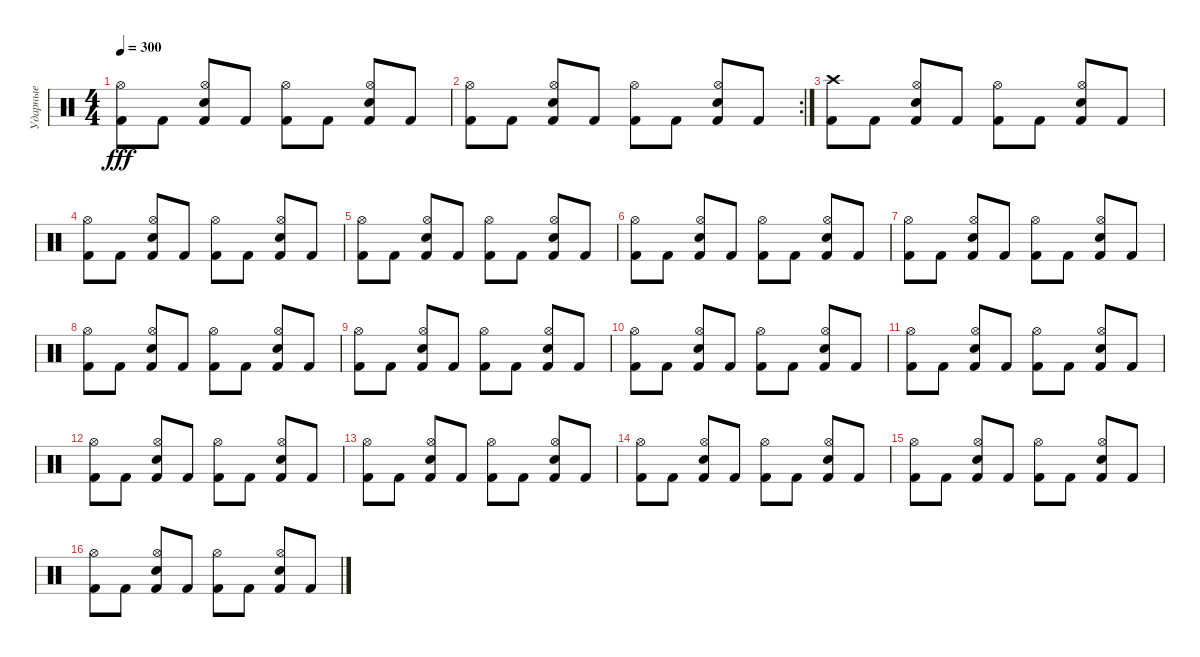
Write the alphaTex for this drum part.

\track ("Ударные" "Ударные") {instrument percussion}
\staff {score}
\articulation defaults
\ts (4 4)
\tempo 300
\clef neutral
\ks c
("Kick (hit) 2" "Hi-Hat (open)").8{dy fff} "Kick (hit) 2".8 ("Kick (hit) 2" "Snare (hit) 2" "Hi-Hat (open)").8 "Kick (hit) 2".8 ("Kick (hit) 2" "Hi-Hat (open)").8 "Kick (hit) 2".8 ("Kick (hit) 2" "Snare (hit) 2" "Hi-Hat (open)").8 "Kick (hit) 2".8 |
\rc 2
("Kick (hit) 2" "Hi-Hat (open)").8 "Kick (hit) 2".8 ("Kick (hit) 2" "Snare (hit) 2" "Hi-Hat (open)").8 "Kick (hit) 2".8 ("Kick (hit) 2" "Hi-Hat (open)").8 "Kick (hit) 2".8 ("Kick (hit) 2" "Snare (hit) 2" "Hi-Hat (open)").8 "Kick (hit) 2".8 |
("Kick (hit) 2" "Crash high (hit)").8 "Kick (hit) 2".8 ("Kick (hit) 2" "Snare (hit) 2" "Hi-Hat (open)").8 "Kick (hit) 2".8 ("Kick (hit) 2" "Hi-Hat (open)").8 "Kick (hit) 2".8 ("Kick (hit) 2" "Snare (hit) 2" "Hi-Hat (open)").8 "Kick (hit) 2".8 |
("Kick (hit) 2" "Hi-Hat (open)").8 "Kick (hit) 2".8 ("Kick (hit) 2" "Snare (hit) 2" "Hi-Hat (open)").8 "Kick (hit) 2".8 ("Kick (hit) 2" "Hi-Hat (open)").8 "Kick (hit) 2".8 ("Kick (hit) 2" "Snare (hit) 2" "Hi-Hat (open)").8 "Kick (hit) 2".8 |
("Kick (hit) 2" "Hi-Hat (open)").8 "Kick (hit) 2".8 ("Kick (hit) 2" "Snare (hit) 2" "Hi-Hat (open)").8 "Kick (hit) 2".8 ("Kick (hit) 2" "Hi-Hat (open)").8 "Kick (hit) 2".8 ("Kick (hit) 2" "Snare (hit) 2" "Hi-Hat (open)").8 "Kick (hit) 2".8 |
("Kick (hit) 2" "Hi-Hat (open)").8 "Kick (hit) 2".8 ("Kick (hit) 2" "Snare (hit) 2" "Hi-Hat (open)").8 "Kick (hit) 2".8 ("Kick (hit) 2" "Hi-Hat (open)").8 "Kick (hit) 2".8 ("Kick (hit) 2" "Snare (hit) 2" "Hi-Hat (open)").8 "Kick (hit) 2".8 |
("Kick (hit) 2" "Hi-Hat (open)").8 "Kick (hit) 2".8 ("Kick (hit) 2" "Snare (hit) 2" "Hi-Hat (open)").8 "Kick (hit) 2".8 ("Kick (hit) 2" "Hi-Hat (open)").8 "Kick (hit) 2".8 ("Kick (hit) 2" "Snare (hit) 2" "Hi-Hat (open)").8 "Kick (hit) 2".8 |
("Kick (hit) 2" "Hi-Hat (open)").8 "Kick (hit) 2".8 ("Kick (hit) 2" "Snare (hit) 2" "Hi-Hat (open)").8 "Kick (hit) 2".8 ("Kick (hit) 2" "Hi-Hat (open)").8 "Kick (hit) 2".8 ("Kick (hit) 2" "Snare (hit) 2" "Hi-Hat (open)").8 "Kick (hit) 2".8 |
("Kick (hit) 2" "Hi-Hat (open)").8 "Kick (hit) 2".8 ("Kick (hit) 2" "Snare (hit) 2" "Hi-Hat (open)").8 "Kick (hit) 2".8 ("Kick (hit) 2" "Hi-Hat (open)").8 "Kick (hit) 2".8 ("Kick (hit) 2" "Snare (hit) 2" "Hi-Hat (open)").8 "Kick (hit) 2".8 |
("Kick (hit) 2" "Hi-Hat (open)").8 "Kick (hit) 2".8 ("Kick (hit) 2" "Snare (hit) 2" "Hi-Hat (open)").8 "Kick (hit) 2".8 ("Kick (hit) 2" "Hi-Hat (open)").8 "Kick (hit) 2".8 ("Kick (hit) 2" "Snare (hit) 2" "Hi-Hat (open)").8 "Kick (hit) 2".8 |
("Kick (hit) 2" "Hi-Hat (open)").8 "Kick (hit) 2".8 ("Kick (hit) 2" "Snare (hit) 2" "Hi-Hat (open)").8 "Kick (hit) 2".8 ("Kick (hit) 2" "Hi-Hat (open)").8 "Kick (hit) 2".8 ("Kick (hit) 2" "Snare (hit) 2" "Hi-Hat (open)").8 "Kick (hit) 2".8 |
("Kick (hit) 2" "Hi-Hat (open)").8 "Kick (hit) 2".8 ("Kick (hit) 2" "Snare (hit) 2" "Hi-Hat (open)").8 "Kick (hit) 2".8 ("Kick (hit) 2" "Hi-Hat (open)").8 "Kick (hit) 2".8 ("Kick (hit) 2" "Snare (hit) 2" "Hi-Hat (open)").8 "Kick (hit) 2".8 |
("Kick (hit) 2" "Hi-Hat (open)").8 "Kick (hit) 2".8 ("Kick (hit) 2" "Snare (hit) 2" "Hi-Hat (open)").8 "Kick (hit) 2".8 ("Kick (hit) 2" "Hi-Hat (open)").8 "Kick (hit) 2".8 ("Kick (hit) 2" "Snare (hit) 2" "Hi-Hat (open)").8 "Kick (hit) 2".8 |
("Kick (hit) 2" "Hi-Hat (open)").8 "Kick (hit) 2".8 ("Kick (hit) 2" "Snare (hit) 2" "Hi-Hat (open)").8 "Kick (hit) 2".8 ("Kick (hit) 2" "Hi-Hat (open)").8 "Kick (hit) 2".8 ("Kick (hit) 2" "Snare (hit) 2" "Hi-Hat (open)").8 "Kick (hit) 2".8 |
("Kick (hit) 2" "Hi-Hat (open)").8 "Kick (hit) 2".8 ("Kick (hit) 2" "Snare (hit) 2" "Hi-Hat (open)").8 "Kick (hit) 2".8 ("Kick (hit) 2" "Hi-Hat (open)").8 "Kick (hit) 2".8 ("Kick (hit) 2" "Snare (hit) 2" "Hi-Hat (open)").8 "Kick (hit) 2".8 |
("Kick (hit) 2" "Hi-Hat (open)").8 "Kick (hit) 2".8 ("Kick (hit) 2" "Snare (hit) 2" "Hi-Hat (open)").8 "Kick (hit) 2".8 ("Kick (hit) 2" "Hi-Hat (open)").8 "Kick (hit) 2".8 ("Kick (hit) 2" "Snare (hit) 2" "Hi-Hat (open)").8 "Kick (hit) 2".8
